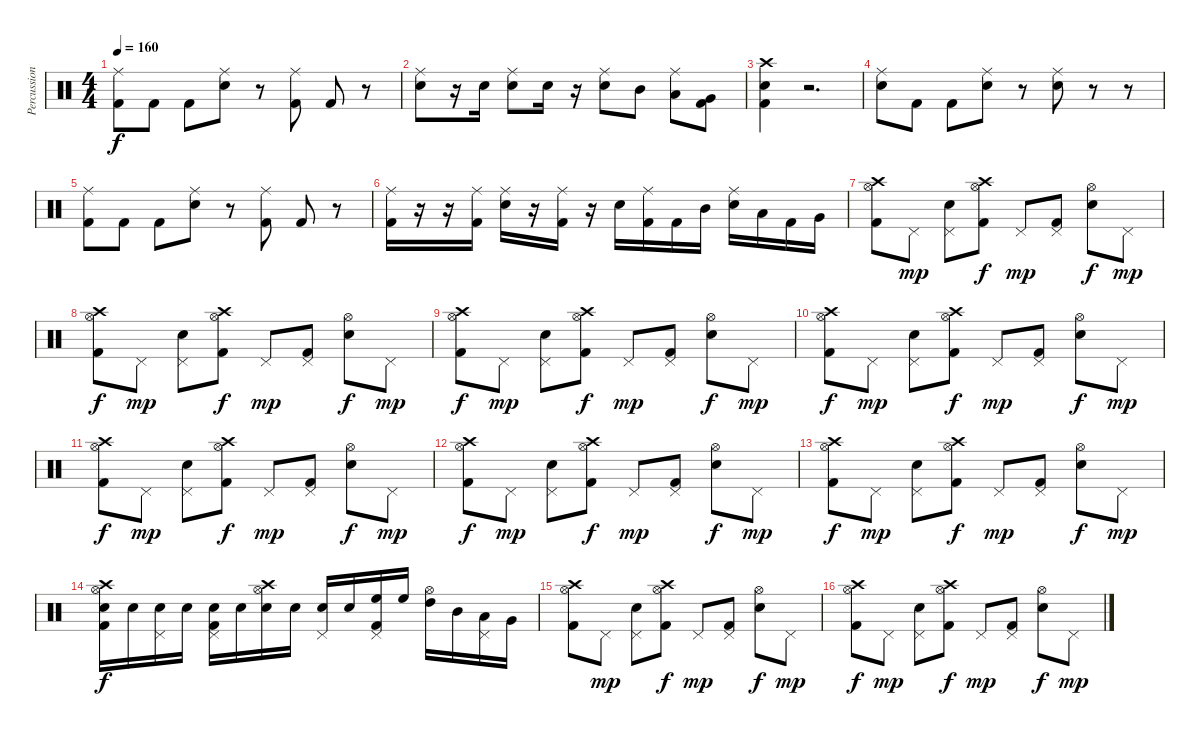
\track ("Percussion" "Percussion") {instrument percussion}
\staff {score}
\articulation defaults
\ts (4 4)
\tempo 160
\clef neutral
\ks c
("Ride (middle)" "Kick (hit) 2").8{dy f} "Kick (hit) 2".8 "Kick (hit) 2".8 ("Ride (middle)" "Snare (hit) 2").8 r.8 ("Ride (middle)" "Kick (hit) 2").8 "Kick (hit) 2".8 r.8 |
("Ride (middle)" "Snare (hit) 2").8 r.16 "Snare (hit) 2".16 ("Ride (middle)" "Snare (hit) 2").8 "Snare (hit) 2".16 r.16 ("Ride (middle)" "Snare (hit) 2").8 "Mid Tom (hit)".8 ("Ride (middle)" "Low Tom (hit)").8 ("Very Low Tom (hit)" "Kick (hit) 2").8 |
("Crash high (hit)" "Snare (hit) 2" "Kick (hit) 2").4 r.2{d} |
("Ride (middle)" "Snare (hit) 2").8 "Kick (hit) 2".8 "Kick (hit) 2".8 ("Ride (middle)" "Snare (hit) 2").8 r.8 ("Ride (middle)" "Snare (hit) 2").8 r.8 r.8 |
("Ride (middle)" "Kick (hit) 2").8 "Kick (hit) 2".8 "Kick (hit) 2".8 ("Ride (middle)" "Snare (hit) 2").8 r.8 ("Ride (middle)" "Kick (hit) 2").8 "Kick (hit) 2".8 r.8 |
("Ride (middle)" "Kick (hit) 2").16 r.16 r.16 ("Ride (middle)" "Kick (hit) 2").16 ("Ride (middle)" "Snare (hit) 2").16 r.16 ("Ride (middle)" "Kick (hit) 2").16 r.16 "Electric Snare (hit)".16 ("Ride (middle)" "Kick (hit) 2").16 "Kick (hit) 2".16 "Mid Tom (hit)".16 ("Ride (middle)" "Electric Snare (hit)").16 "Low Tom (hit)".16 "Kick (hit) 2".16 "Very Low Tom (hit)".16 |
("Hi-Hat (open)" "Crash high (hit)" "Kick (hit) 2").8 "Pedal Hi-Hat (hit)".8{dy mp} ("Pedal Hi-Hat (hit)" "Snare (hit) 2").8 ("Hi-Hat (open)" "Crash high (hit)" "Kick (hit) 2").8{dy f} "Pedal Hi-Hat (hit)".8{dy mp} ("Pedal Hi-Hat (hit)" "Kick (hit) 2").8 ("Hi-Hat (open)" "Snare (hit) 2").8{dy f} "Pedal Hi-Hat (hit)".8{dy mp} |
("Hi-Hat (open)" "Crash high (hit)" "Kick (hit) 2").8{dy f} "Pedal Hi-Hat (hit)".8{dy mp} ("Pedal Hi-Hat (hit)" "Snare (hit) 2").8 ("Hi-Hat (open)" "Crash high (hit)" "Kick (hit) 2").8{dy f} "Pedal Hi-Hat (hit)".8{dy mp} ("Pedal Hi-Hat (hit)" "Kick (hit) 2").8 ("Hi-Hat (open)" "Snare (hit) 2").8{dy f} "Pedal Hi-Hat (hit)".8{dy mp} |
("Hi-Hat (open)" "Crash high (hit)" "Kick (hit) 2").8{dy f} "Pedal Hi-Hat (hit)".8{dy mp} ("Pedal Hi-Hat (hit)" "Snare (hit) 2").8 ("Hi-Hat (open)" "Crash high (hit)" "Kick (hit) 2").8{dy f} "Pedal Hi-Hat (hit)".8{dy mp} ("Pedal Hi-Hat (hit)" "Kick (hit) 2").8 ("Hi-Hat (open)" "Snare (hit) 2").8{dy f} "Pedal Hi-Hat (hit)".8{dy mp} |
("Hi-Hat (open)" "Crash high (hit)" "Kick (hit) 2").8{dy f} "Pedal Hi-Hat (hit)".8{dy mp} ("Pedal Hi-Hat (hit)" "Snare (hit) 2").8 ("Hi-Hat (open)" "Crash high (hit)" "Kick (hit) 2").8{dy f} "Pedal Hi-Hat (hit)".8{dy mp} ("Pedal Hi-Hat (hit)" "Kick (hit) 2").8 ("Hi-Hat (open)" "Snare (hit) 2").8{dy f} "Pedal Hi-Hat (hit)".8{dy mp} |
("Hi-Hat (open)" "Crash high (hit)" "Kick (hit) 2").8{dy f} "Pedal Hi-Hat (hit)".8{dy mp} ("Pedal Hi-Hat (hit)" "Snare (hit) 2").8 ("Hi-Hat (open)" "Crash high (hit)" "Kick (hit) 2").8{dy f} "Pedal Hi-Hat (hit)".8{dy mp} ("Pedal Hi-Hat (hit)" "Kick (hit) 2").8 ("Hi-Hat (open)" "Snare (hit) 2").8{dy f} "Pedal Hi-Hat (hit)".8{dy mp} |
("Hi-Hat (open)" "Crash high (hit)" "Kick (hit) 2").8{dy f} "Pedal Hi-Hat (hit)".8{dy mp} ("Pedal Hi-Hat (hit)" "Snare (hit) 2").8 ("Hi-Hat (open)" "Crash high (hit)" "Kick (hit) 2").8{dy f} "Pedal Hi-Hat (hit)".8{dy mp} ("Pedal Hi-Hat (hit)" "Kick (hit) 2").8 ("Hi-Hat (open)" "Snare (hit) 2").8{dy f} "Pedal Hi-Hat (hit)".8{dy mp} |
("Hi-Hat (open)" "Crash high (hit)" "Kick (hit) 2").8{dy f} "Pedal Hi-Hat (hit)".8{dy mp} ("Pedal Hi-Hat (hit)" "Snare (hit) 2").8 ("Hi-Hat (open)" "Crash high (hit)" "Kick (hit) 2").8{dy f} "Pedal Hi-Hat (hit)".8{dy mp} ("Pedal Hi-Hat (hit)" "Kick (hit) 2").8 ("Hi-Hat (open)" "Snare (hit) 2").8{dy f} "Pedal Hi-Hat (hit)".8{dy mp} |
("Hi-Hat (open)" "Crash high (hit)" "Snare (hit) 2" "Kick (hit) 2").16{dy f} "Snare (hit) 2".16 ("Pedal Hi-Hat (hit)" "Snare (hit) 2").16 "Snare (hit) 2".16 ("Pedal Hi-Hat (hit)" "Snare (hit) 2" "Kick (hit) 2").16 "Snare (hit) 2".16 ("Hi-Hat (open)" "Crash high (hit)" "Snare (hit) 2").16 "Snare (hit) 2".16 ("Pedal Hi-Hat (hit)" "Snare (hit) 2").16 "Snare (hit) 2".16 ("Pedal Hi-Hat (hit)" "High Floor Tom (hit)" "Kick (hit) 2").16 "High Floor Tom (hit)".16 ("Hi-Hat (open)" "High Tom (hit)").16 "Mid Tom (hit)".16 ("Pedal Hi-Hat (hit)" "Low Tom (hit)").16 "Very Low Tom (hit)".16 |
("Hi-Hat (open)" "Crash high (hit)" "Kick (hit) 2").8 "Pedal Hi-Hat (hit)".8{dy mp} ("Pedal Hi-Hat (hit)" "Snare (hit) 2").8 ("Hi-Hat (open)" "Crash high (hit)" "Kick (hit) 2").8{dy f} "Pedal Hi-Hat (hit)".8{dy mp} ("Pedal Hi-Hat (hit)" "Kick (hit) 2").8 ("Hi-Hat (open)" "Snare (hit) 2").8{dy f} "Pedal Hi-Hat (hit)".8{dy mp} |
("Hi-Hat (open)" "Crash high (hit)" "Kick (hit) 2").8{dy f} "Pedal Hi-Hat (hit)".8{dy mp} ("Pedal Hi-Hat (hit)" "Snare (hit) 2").8 ("Hi-Hat (open)" "Crash high (hit)" "Kick (hit) 2").8{dy f} "Pedal Hi-Hat (hit)".8{dy mp} ("Pedal Hi-Hat (hit)" "Kick (hit) 2").8 ("Hi-Hat (open)" "Snare (hit) 2").8{dy f} "Pedal Hi-Hat (hit)".8{dy mp}
